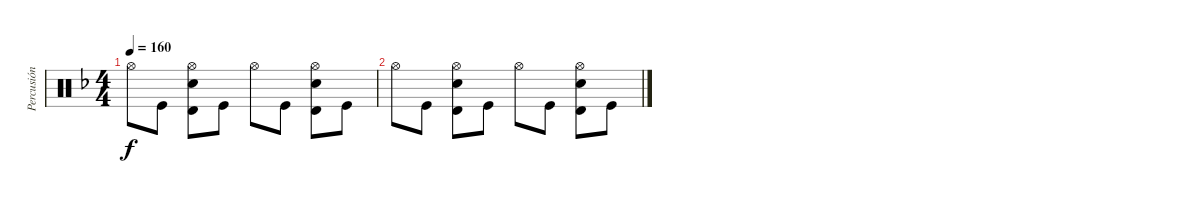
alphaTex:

\track ("Percusión" "Percusión") {instrument percussion}
\staff {score}
\articulation defaults
\ts (4 4)
\tempo 160
\clef neutral
\ks dminor "Hi-Hat (open)".8{dy f} "Kick (hit)".8
("Timbale high (hit)" "Hi-Hat (open)" "Electric Snare (hit)").8 "Kick (hit)".8 "Hi-Hat (open)".8 "Kick (hit)".8 ("Timbale high (hit)" "Hi-Hat (open)" "Electric Snare (hit)").8 "Kick (hit)".8 |
"Hi-Hat (open)".8 "Kick (hit)".8 ("Timbale high (hit)" "Hi-Hat (open)" "Electric Snare (hit)").8 "Kick (hit)".8 "Hi-Hat (open)".8 "Kick (hit)".8 ("Timbale high (hit)" "Hi-Hat (open)" "Electric Snare (hit)").8 "Kick (hit)".8
